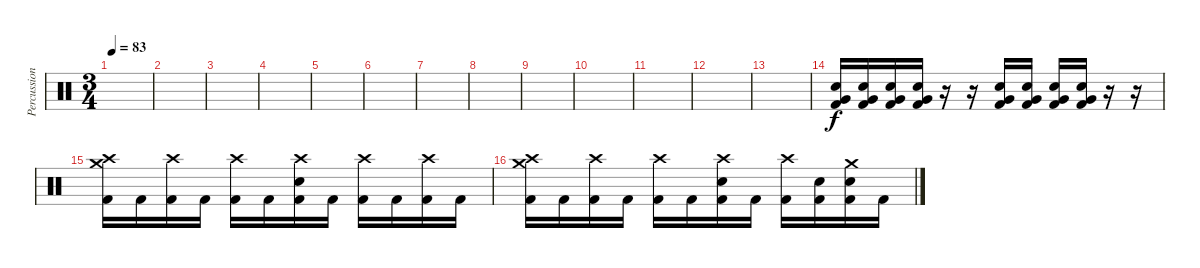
\track ("Percussion" "Percussion") {instrument percussion}
\staff {score}
\articulation defaults
\ts (3 4)
\tempo 83
\clef neutral
\ks c
|
|
|
|
|
|
|
|
|
|
|
|
|
("Kick (hit) 2" "Very Low Tom (hit)" "Electric Snare (hit)").16 ("Kick (hit) 2" "Very Low Tom (hit)" "Electric Snare (hit)").16 ("Kick (hit) 2" "Very Low Tom (hit)" "Electric Snare (hit)").16 ("Kick (hit) 2" "Very Low Tom (hit)" "Electric Snare (hit)").16 r.16 r.16 ("Kick (hit) 2" "Very Low Tom (hit)" "Electric Snare (hit)").16 ("Kick (hit) 2" "Very Low Tom (hit)" "Electric Snare (hit)").16 ("Kick (hit) 2" "Very Low Tom (hit)" "Electric Snare (hit)").16 ("Kick (hit) 2" "Very Low Tom (hit)" "Electric Snare (hit)").16 r.16 r.16 |
("Kick (hit) 2" "Crash medium (hit)" "Crash high (hit)").16 "Kick (hit) 2".16 ("Kick (hit) 2" "Crash high (hit)").16 "Kick (hit) 2".16 ("Kick (hit) 2" "Crash high (hit)").16 "Kick (hit) 2".16 ("Kick (hit) 2" "Electric Snare (hit)" "Crash high (hit)").16 "Kick (hit) 2".16 ("Kick (hit) 2" "Crash high (hit)").16 "Kick (hit) 2".16 ("Kick (hit) 2" "Crash high (hit)").16 "Kick (hit) 2".16 |
("Kick (hit) 2" "Crash medium (hit)" "Crash high (hit)").16 "Kick (hit) 2".16 ("Kick (hit) 2" "Crash high (hit)").16 "Kick (hit) 2".16 ("Kick (hit) 2" "Crash high (hit)").16 "Kick (hit) 2".16 ("Kick (hit) 2" "Electric Snare (hit)" "Crash high (hit)").16 "Kick (hit) 2".16 ("Kick (hit) 2" "Crash high (hit)").16 ("Kick (hit) 2" "Electric Snare (hit)").16 ("Kick (hit) 2" "Electric Snare (hit)" "Crash medium (hit)").16 "Kick (hit) 2".16
